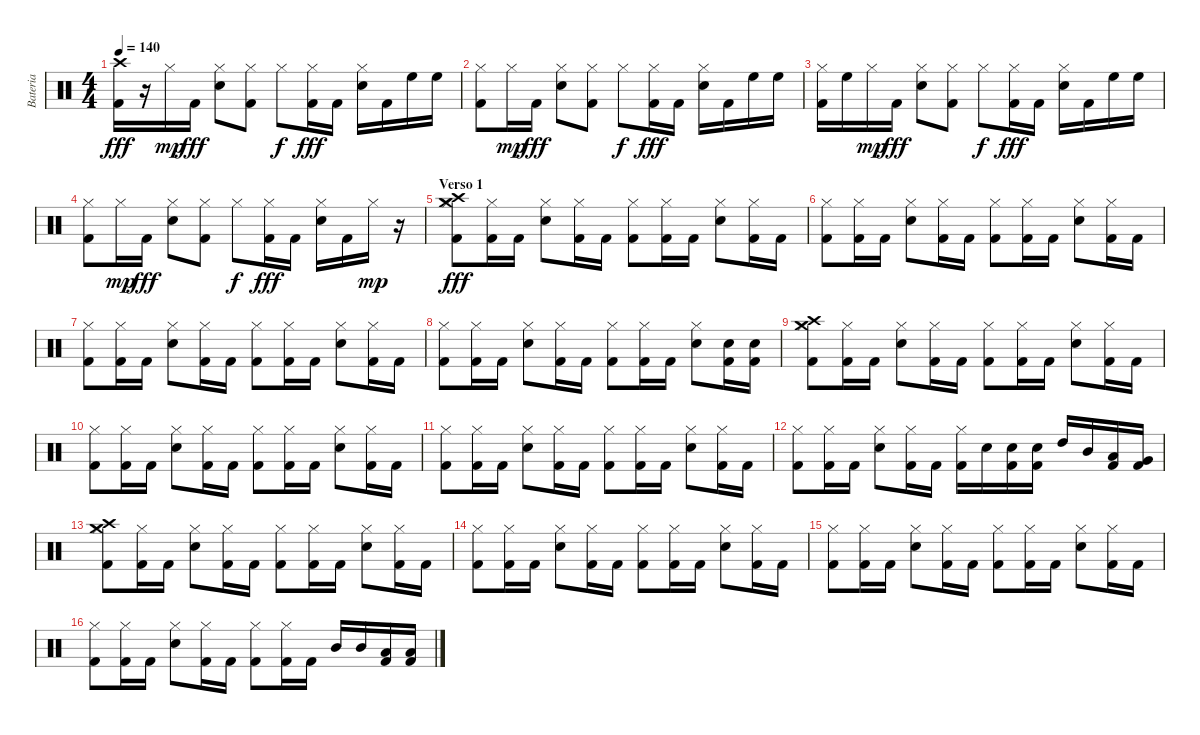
\track ("Bateria" "Bateria") {instrument percussion}
\staff {score}
\articulation defaults
\ts (4 4)
\tempo 140
\clef neutral
\ks c
("Crash high (hit)" "Kick (hit) 2").16{dy fff} r.16 "Hi-Hat (closed)".16{dy mp} "Kick (hit) 2".16{dy fff} ("Hi-Hat (closed)" "Electric Snare (hit)").8 ("Hi-Hat (closed)" "Kick (hit) 2").8 "Hi-Hat (closed)".8{dy f} ("Hi-Hat (closed)" "Kick (hit) 2").16{dy fff} "Kick (hit) 2".16 ("Hi-Hat (closed)" "Electric Snare (hit)").16 "Kick (hit) 2".16 "High Floor Tom (hit)".16 "High Floor Tom (hit)".16 |
("Hi-Hat (closed)" "Kick (hit) 2").8 "Hi-Hat (closed)".16{dy mp} "Kick (hit) 2".16{dy fff} ("Hi-Hat (closed)" "Electric Snare (hit)").8 ("Hi-Hat (closed)" "Kick (hit) 2").8 "Hi-Hat (closed)".8{dy f} ("Hi-Hat (closed)" "Kick (hit) 2").16{dy fff} "Kick (hit) 2".16 ("Hi-Hat (closed)" "Electric Snare (hit)").16 "Kick (hit) 2".16 "High Floor Tom (hit)".16 "High Floor Tom (hit)".16 |
("Hi-Hat (closed)" "Kick (hit) 2").16 "High Floor Tom (hit)".16 "Hi-Hat (closed)".16{dy mp} "Kick (hit) 2".16{dy fff} ("Hi-Hat (closed)" "Electric Snare (hit)").8 ("Hi-Hat (closed)" "Kick (hit) 2").8 "Hi-Hat (closed)".8{dy f} ("Hi-Hat (closed)" "Kick (hit) 2").16{dy fff} "Kick (hit) 2".16 ("Hi-Hat (closed)" "Electric Snare (hit)").16 "Kick (hit) 2".16 "High Floor Tom (hit)".16 "High Floor Tom (hit)".16 |
("Hi-Hat (closed)" "Kick (hit) 2").8 "Hi-Hat (closed)".16{dy mp} "Kick (hit) 2".16{dy fff} ("Hi-Hat (closed)" "Electric Snare (hit)").8 ("Hi-Hat (closed)" "Kick (hit) 2").8 "Hi-Hat (closed)".8{dy f} ("Hi-Hat (closed)" "Kick (hit) 2").16{dy fff} "Kick (hit) 2".16 ("Hi-Hat (closed)" "Electric Snare (hit)").16 "Kick (hit) 2".16 "Hi-Hat (closed)".16{dy mp} r.16 |
\section ("" "Verso 1")
("Hi-Hat (closed)" "Kick (hit) 2" "Crash medium (hit)" "Crash high (hit)").8{dy fff} ("Hi-Hat (closed)" "Kick (hit) 2").16 "Kick (hit) 2".16 ("Hi-Hat (closed)" "Electric Snare (hit)").8 ("Hi-Hat (closed)" "Kick (hit) 2").16 "Kick (hit) 2".16 ("Hi-Hat (closed)" "Kick (hit) 2").8 ("Hi-Hat (closed)" "Kick (hit) 2").16 "Kick (hit) 2".16 ("Hi-Hat (closed)" "Electric Snare (hit)").8 ("Hi-Hat (closed)" "Kick (hit) 2").16 "Kick (hit) 2".16 |
("Hi-Hat (closed)" "Kick (hit) 2").8 ("Hi-Hat (closed)" "Kick (hit) 2").16 "Kick (hit) 2".16 ("Hi-Hat (closed)" "Electric Snare (hit)").8 ("Hi-Hat (closed)" "Kick (hit) 2").16 "Kick (hit) 2".16 ("Hi-Hat (closed)" "Kick (hit) 2").8 ("Hi-Hat (closed)" "Kick (hit) 2").16 "Kick (hit) 2".16 ("Hi-Hat (closed)" "Electric Snare (hit)").8 ("Hi-Hat (closed)" "Kick (hit) 2").16 "Kick (hit) 2".16 |
("Hi-Hat (closed)" "Kick (hit) 2").8 ("Hi-Hat (closed)" "Kick (hit) 2").16 "Kick (hit) 2".16 ("Hi-Hat (closed)" "Electric Snare (hit)").8 ("Hi-Hat (closed)" "Kick (hit) 2").16 "Kick (hit) 2".16 ("Hi-Hat (closed)" "Kick (hit) 2").8 ("Hi-Hat (closed)" "Kick (hit) 2").16 "Kick (hit) 2".16 ("Hi-Hat (closed)" "Electric Snare (hit)").8 ("Hi-Hat (closed)" "Kick (hit) 2").16 "Kick (hit) 2".16 |
("Hi-Hat (closed)" "Kick (hit) 2").8 ("Hi-Hat (closed)" "Kick (hit) 2").16 "Kick (hit) 2".16 ("Hi-Hat (closed)" "Electric Snare (hit)").8 ("Hi-Hat (closed)" "Kick (hit) 2").16 "Kick (hit) 2".16 ("Hi-Hat (closed)" "Kick (hit) 2").8 ("Hi-Hat (closed)" "Kick (hit) 2").16 "Kick (hit) 2".16 ("Hi-Hat (closed)" "Electric Snare (hit)").8 ("Kick (hit) 2" "Electric Snare (hit)").16 ("Kick (hit) 2" "Electric Snare (hit)").16 |
("Hi-Hat (closed)" "Kick (hit) 2" "Crash medium (hit)" "Crash high (hit)").8 ("Hi-Hat (closed)" "Kick (hit) 2").16 "Kick (hit) 2".16 ("Hi-Hat (closed)" "Electric Snare (hit)").8 ("Hi-Hat (closed)" "Kick (hit) 2").16 "Kick (hit) 2".16 ("Hi-Hat (closed)" "Kick (hit) 2").8 ("Hi-Hat (closed)" "Kick (hit) 2").16 "Kick (hit) 2".16 ("Hi-Hat (closed)" "Electric Snare (hit)").8 ("Hi-Hat (closed)" "Kick (hit) 2").16 "Kick (hit) 2".16 |
("Hi-Hat (closed)" "Kick (hit) 2").8 ("Hi-Hat (closed)" "Kick (hit) 2").16 "Kick (hit) 2".16 ("Hi-Hat (closed)" "Electric Snare (hit)").8 ("Hi-Hat (closed)" "Kick (hit) 2").16 "Kick (hit) 2".16 ("Hi-Hat (closed)" "Kick (hit) 2").8 ("Hi-Hat (closed)" "Kick (hit) 2").16 "Kick (hit) 2".16 ("Hi-Hat (closed)" "Electric Snare (hit)").8 ("Hi-Hat (closed)" "Kick (hit) 2").16 "Kick (hit) 2".16 |
("Hi-Hat (closed)" "Kick (hit) 2").8 ("Hi-Hat (closed)" "Kick (hit) 2").16 "Kick (hit) 2".16 ("Hi-Hat (closed)" "Electric Snare (hit)").8 ("Hi-Hat (closed)" "Kick (hit) 2").16 "Kick (hit) 2".16 ("Hi-Hat (closed)" "Kick (hit) 2").8 ("Hi-Hat (closed)" "Kick (hit) 2").16 "Kick (hit) 2".16 ("Hi-Hat (closed)" "Electric Snare (hit)").8 ("Hi-Hat (closed)" "Kick (hit) 2").16 "Kick (hit) 2".16 |
("Hi-Hat (closed)" "Kick (hit) 2").8 ("Hi-Hat (closed)" "Kick (hit) 2").16 "Kick (hit) 2".16 ("Hi-Hat (closed)" "Electric Snare (hit)").8 ("Hi-Hat (closed)" "Kick (hit) 2").16 "Kick (hit) 2".16 ("Hi-Hat (closed)" "Kick (hit) 2").16 "Electric Snare (hit)".16 ("Kick (hit) 2" "Electric Snare (hit)").16 ("Kick (hit) 2" "Electric Snare (hit)").16 "High Tom (hit)".16 "Mid Tom (hit)".16 ("Kick (hit) 2" "Low Tom (hit)").16 ("Kick (hit) 2" "Very Low Tom (hit)").16 |
("Hi-Hat (closed)" "Kick (hit) 2" "Crash medium (hit)" "Crash high (hit)").8 ("Hi-Hat (closed)" "Kick (hit) 2").16 "Kick (hit) 2".16 ("Hi-Hat (closed)" "Electric Snare (hit)").8 ("Hi-Hat (closed)" "Kick (hit) 2").16 "Kick (hit) 2".16 ("Hi-Hat (closed)" "Kick (hit) 2").8 ("Hi-Hat (closed)" "Kick (hit) 2").16 "Kick (hit) 2".16 ("Hi-Hat (closed)" "Electric Snare (hit)").8 ("Hi-Hat (closed)" "Kick (hit) 2").16 "Kick (hit) 2".16 |
("Hi-Hat (closed)" "Kick (hit) 2").8 ("Hi-Hat (closed)" "Kick (hit) 2").16 "Kick (hit) 2".16 ("Hi-Hat (closed)" "Electric Snare (hit)").8 ("Hi-Hat (closed)" "Kick (hit) 2").16 "Kick (hit) 2".16 ("Hi-Hat (closed)" "Kick (hit) 2").8 ("Hi-Hat (closed)" "Kick (hit) 2").16 "Kick (hit) 2".16 ("Hi-Hat (closed)" "Electric Snare (hit)").8 ("Hi-Hat (closed)" "Kick (hit) 2").16 "Kick (hit) 2".16 |
("Hi-Hat (closed)" "Kick (hit) 2").8 ("Hi-Hat (closed)" "Kick (hit) 2").16 "Kick (hit) 2".16 ("Hi-Hat (closed)" "Electric Snare (hit)").8 ("Hi-Hat (closed)" "Kick (hit) 2").16 "Kick (hit) 2".16 ("Hi-Hat (closed)" "Kick (hit) 2").8 ("Hi-Hat (closed)" "Kick (hit) 2").16 "Kick (hit) 2".16 ("Hi-Hat (closed)" "Electric Snare (hit)").8 ("Hi-Hat (closed)" "Kick (hit) 2").16 "Kick (hit) 2".16 |
("Hi-Hat (closed)" "Kick (hit) 2").8 ("Hi-Hat (closed)" "Kick (hit) 2").16 "Kick (hit) 2".16 ("Hi-Hat (closed)" "Electric Snare (hit)").8 ("Hi-Hat (closed)" "Kick (hit) 2").16 "Kick (hit) 2".16 ("Hi-Hat (closed)" "Kick (hit) 2").8 ("Hi-Hat (closed)" "Kick (hit) 2").16 "Kick (hit) 2".16 "Mid Tom (hit)".16 "Mid Tom (hit)".16 ("Kick (hit) 2" "Low Tom (hit)").16 ("Kick (hit) 2" "Low Tom (hit)").16
